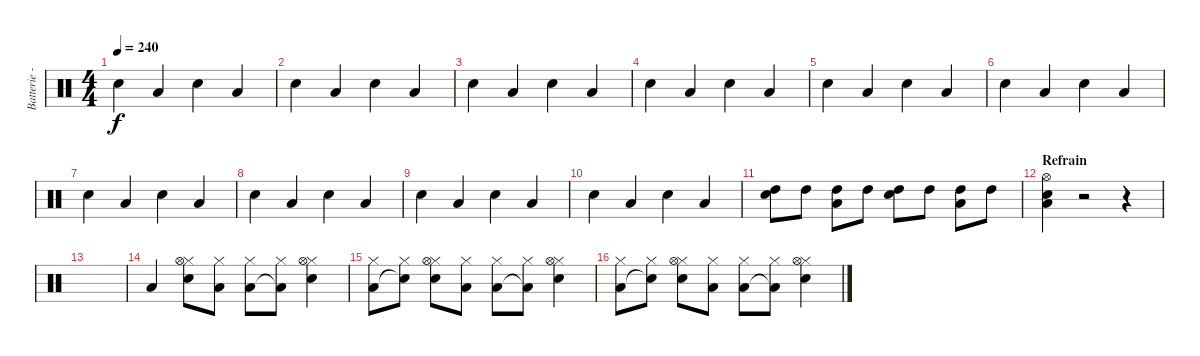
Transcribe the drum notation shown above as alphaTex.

\track ("Batterie - Guillaume" "Batterie -") {instrument percussion}
\staff {score}
\articulation defaults
\ts (4 4)
\tempo 240
\clef neutral
\ks c "Electric Snare (hit)".4{dy f} "Low Tom (hit)".4 "Electric Snare (hit)".4 "Low Tom (hit)".4
|
"Electric Snare (hit)".4 "Low Tom (hit)".4 "Electric Snare (hit)".4 "Low Tom (hit)".4 |
"Electric Snare (hit)".4 "Low Tom (hit)".4 "Electric Snare (hit)".4 "Low Tom (hit)".4 |
"Electric Snare (hit)".4 "Low Tom (hit)".4 "Electric Snare (hit)".4 "Low Tom (hit)".4 |
"Electric Snare (hit)".4 "Low Tom (hit)".4 "Electric Snare (hit)".4 "Low Tom (hit)".4 |
"Electric Snare (hit)".4 "Low Tom (hit)".4 "Electric Snare (hit)".4 "Low Tom (hit)".4 |
"Electric Snare (hit)".4 "Low Tom (hit)".4 "Electric Snare (hit)".4 "Low Tom (hit)".4 |
"Electric Snare (hit)".4 "Low Tom (hit)".4 "Electric Snare (hit)".4 "Low Tom (hit)".4 |
"Electric Snare (hit)".4 "Low Tom (hit)".4 "Electric Snare (hit)".4 "Low Tom (hit)".4 |
"Electric Snare (hit)".4 "Low Tom (hit)".4 "Electric Snare (hit)".4 "Low Tom (hit)".4 |
("Electric Snare (hit)" "High Tom (hit)").8 "High Tom (hit)".8 ("Low Tom (hit)" "High Tom (hit)").8 "High Tom (hit)".8 ("Electric Snare (hit)" "High Tom (hit)").8 "High Tom (hit)".8 ("Low Tom (hit)" "High Tom (hit)").8 "High Tom (hit)".8 |
\section ("" "Refrain")
("Hi-Hat (open)" "Low Tom (hit)" "Electric Snare (hit)").4 r.2 r.4 |
|
"Low Tom (hit)".4 ("Hi-Hat (closed)" "Hi-Hat (open)" "Electric Snare (hit)").8 ("Hi-Hat (closed)" "Low Tom (hit)").8 ("Hi-Hat (closed)" "Low Tom (hit)").8 ("Hi-Hat (closed)" "Low Tom (hit)"{t}).8 ("Hi-Hat (closed)" "Hi-Hat (open)" "Electric Snare (hit)").4 |
("Hi-Hat (closed)" "Low Tom (hit)").8 ("Hi-Hat (closed)" "Snare (hit)"{t}).8 ("Hi-Hat (closed)" "Hi-Hat (open)" "Electric Snare (hit)").8 ("Hi-Hat (closed)" "Low Tom (hit)").8 ("Hi-Hat (closed)" "Low Tom (hit)").8 ("Hi-Hat (closed)" "Low Tom (hit)"{t}).8 ("Hi-Hat (closed)" "Hi-Hat (open)" "Electric Snare (hit)").4 |
("Hi-Hat (closed)" "Low Tom (hit)").8 ("Hi-Hat (closed)" "Snare (hit)"{t}).8 ("Hi-Hat (closed)" "Hi-Hat (open)" "Electric Snare (hit)").8 ("Hi-Hat (closed)" "Low Tom (hit)").8 ("Hi-Hat (closed)" "Low Tom (hit)").8 ("Hi-Hat (closed)" "Low Tom (hit)"{t}).8 ("Hi-Hat (closed)" "Hi-Hat (open)" "Electric Snare (hit)").4
